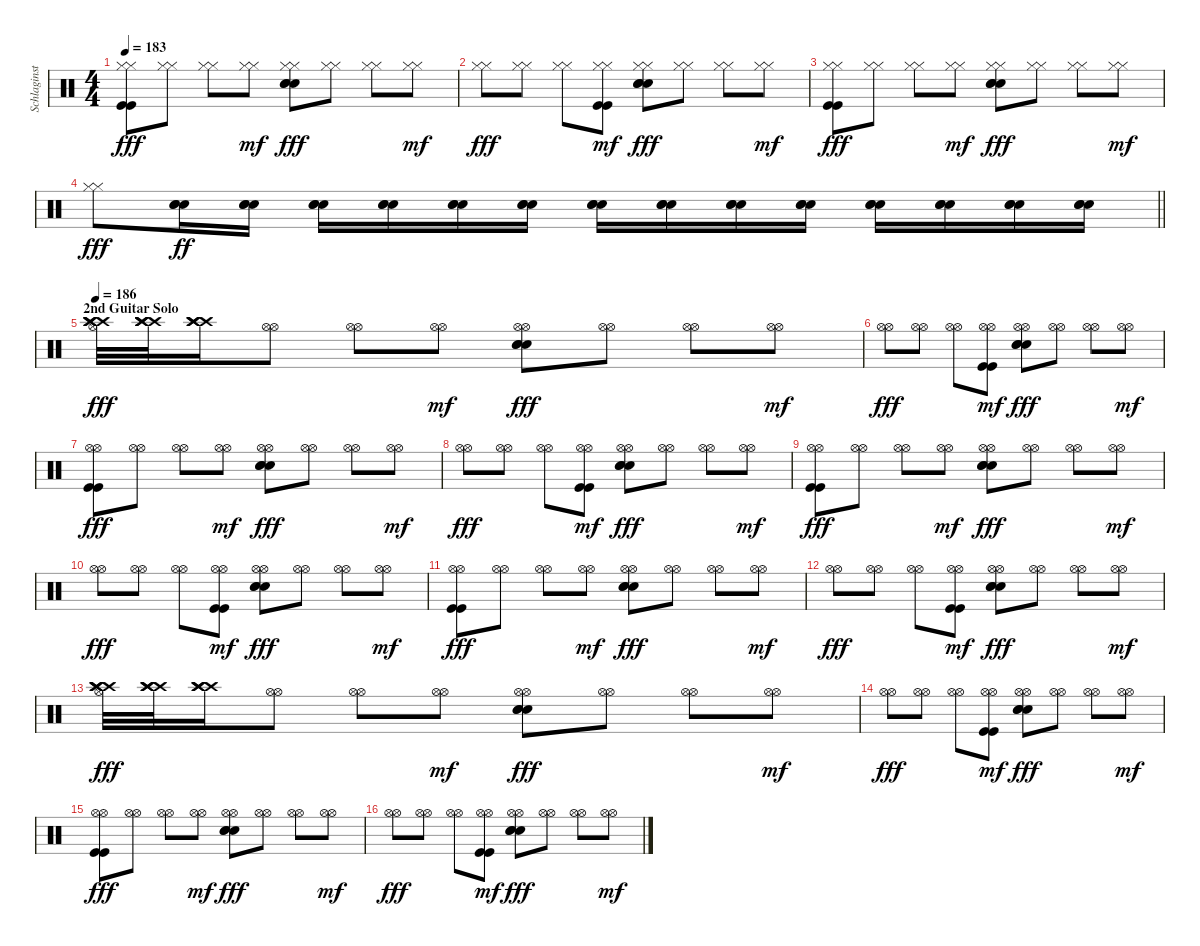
\track ("Schlaginstrumente - Auswahl" "Schlaginst") {instrument percussion}
\staff {score}
\articulation defaults
\ts (4 4)
\tempo 183
\clef neutral
\ks c
("Hi-Hat (closed)" "Hi-Hat (closed)" "Kick (hit)" "Kick (hit)").8{dy fff} ("Hi-Hat (closed)" "Hi-Hat (closed)").8 ("Hi-Hat (closed)" "Hi-Hat (closed)").8 ("Hi-Hat (closed)" "Hi-Hat (closed)").8{dy mf} ("Hi-Hat (closed)" "Hi-Hat (closed)" "Snare (hit) 2" "Snare (hit) 2" "Snare (hit) 2").8{dy fff} ("Hi-Hat (closed)" "Hi-Hat (closed)").8 ("Hi-Hat (closed)" "Hi-Hat (closed)").8 ("Hi-Hat (closed)" "Hi-Hat (closed)").8{dy mf} |
("Hi-Hat (closed)" "Hi-Hat (closed)").8{dy fff} ("Hi-Hat (closed)" "Hi-Hat (closed)").8 ("Hi-Hat (closed)" "Hi-Hat (closed)").8 ("Hi-Hat (closed)" "Hi-Hat (closed)" "Kick (hit)" "Kick (hit)").8{dy mf} ("Hi-Hat (closed)" "Hi-Hat (closed)" "Snare (hit) 2" "Snare (hit) 2" "Snare (hit) 2").8{dy fff} ("Hi-Hat (closed)" "Hi-Hat (closed)").8 ("Hi-Hat (closed)" "Hi-Hat (closed)").8 ("Hi-Hat (closed)" "Hi-Hat (closed)").8{dy mf} |
("Hi-Hat (closed)" "Hi-Hat (closed)" "Kick (hit)" "Kick (hit)").8{dy fff} ("Hi-Hat (closed)" "Hi-Hat (closed)").8 ("Hi-Hat (closed)" "Hi-Hat (closed)").8 ("Hi-Hat (closed)" "Hi-Hat (closed)").8{dy mf} ("Hi-Hat (closed)" "Hi-Hat (closed)" "Snare (hit) 2" "Snare (hit) 2" "Snare (hit) 2").8{dy fff} ("Hi-Hat (closed)" "Hi-Hat (closed)").8 ("Hi-Hat (closed)" "Hi-Hat (closed)").8 ("Hi-Hat (closed)" "Hi-Hat (closed)").8{dy mf} |
\barLineRight lightlight
("Hi-Hat (closed)" "Hi-Hat (closed)").8{dy fff} ("Snare (hit) 2" "Snare (hit) 2" "Snare (hit) 2").16{dy ff} ("Snare (hit) 2" "Snare (hit) 2" "Snare (hit) 2").16 ("Snare (hit) 2" "Snare (hit) 2" "Snare (hit) 2").16 ("Snare (hit) 2" "Snare (hit) 2" "Snare (hit) 2").16 ("Snare (hit) 2" "Snare (hit) 2" "Snare (hit) 2").16 ("Snare (hit) 2" "Snare (hit) 2" "Snare (hit) 2").16 ("Snare (hit) 2" "Snare (hit) 2" "Snare (hit) 2").16 ("Snare (hit) 2" "Snare (hit) 2" "Snare (hit) 2").16 ("Snare (hit) 2" "Snare (hit) 2" "Snare (hit) 2").16 ("Snare (hit) 2" "Snare (hit) 2" "Snare (hit) 2").16 ("Snare (hit) 2" "Snare (hit) 2" "Snare (hit) 2").16 ("Snare (hit) 2" "Snare (hit) 2" "Snare (hit) 2").16 ("Snare (hit) 2" "Snare (hit) 2" "Snare (hit) 2").16 ("Snare (hit) 2" "Snare (hit) 2" "Snare (hit) 2").16 |
\section ("" "2nd Guitar Solo")
\tempo 186
("Hi-Hat (open)" "Crash high (hit)" "Crash high (hit)" "Crash high (hit)" "Crash high (hit)").32{dy fff} ("Crash high (hit)" "Crash high (hit)" "Crash high (hit)" "Crash high (hit)").32 ("Crash high (hit)" "Crash high (hit)" "Crash high (hit)" "Crash high (hit)").16 ("Hi-Hat (open)" "Hi-Hat (open)").8 ("Hi-Hat (open)" "Hi-Hat (open)").8 ("Hi-Hat (open)" "Hi-Hat (open)").8{dy mf} ("Hi-Hat (open)" "Hi-Hat (open)" "Snare (hit) 2" "Snare (hit) 2" "Snare (hit) 2").8{dy fff} ("Hi-Hat (open)" "Hi-Hat (open)").8 ("Hi-Hat (open)" "Hi-Hat (open)").8 ("Hi-Hat (open)" "Hi-Hat (open)").8{dy mf} |
("Hi-Hat (open)" "Hi-Hat (open)").8{dy fff} ("Hi-Hat (open)" "Hi-Hat (open)").8 ("Hi-Hat (open)" "Hi-Hat (open)").8 ("Hi-Hat (open)" "Hi-Hat (open)" "Kick (hit)" "Kick (hit)").8{dy mf} ("Hi-Hat (open)" "Hi-Hat (open)" "Snare (hit) 2" "Snare (hit) 2" "Snare (hit) 2").8{dy fff} ("Hi-Hat (open)" "Hi-Hat (open)").8 ("Hi-Hat (open)" "Hi-Hat (open)").8 ("Hi-Hat (open)" "Hi-Hat (open)").8{dy mf} |
("Hi-Hat (open)" "Hi-Hat (open)" "Kick (hit)" "Kick (hit)").8{dy fff} ("Hi-Hat (open)" "Hi-Hat (open)").8 ("Hi-Hat (open)" "Hi-Hat (open)").8 ("Hi-Hat (open)" "Hi-Hat (open)").8{dy mf} ("Hi-Hat (open)" "Hi-Hat (open)" "Snare (hit) 2" "Snare (hit) 2" "Snare (hit) 2").8{dy fff} ("Hi-Hat (open)" "Hi-Hat (open)").8 ("Hi-Hat (open)" "Hi-Hat (open)").8 ("Hi-Hat (open)" "Hi-Hat (open)").8{dy mf} |
("Hi-Hat (open)" "Hi-Hat (open)").8{dy fff} ("Hi-Hat (open)" "Hi-Hat (open)").8 ("Hi-Hat (open)" "Hi-Hat (open)").8 ("Hi-Hat (open)" "Hi-Hat (open)" "Kick (hit)" "Kick (hit)").8{dy mf} ("Hi-Hat (open)" "Hi-Hat (open)" "Snare (hit) 2" "Snare (hit) 2" "Snare (hit) 2").8{dy fff} ("Hi-Hat (open)" "Hi-Hat (open)").8 ("Hi-Hat (open)" "Hi-Hat (open)").8 ("Hi-Hat (open)" "Hi-Hat (open)").8{dy mf} |
("Hi-Hat (open)" "Hi-Hat (open)" "Kick (hit)" "Kick (hit)").8{dy fff} ("Hi-Hat (open)" "Hi-Hat (open)").8 ("Hi-Hat (open)" "Hi-Hat (open)").8 ("Hi-Hat (open)" "Hi-Hat (open)").8{dy mf} ("Hi-Hat (open)" "Hi-Hat (open)" "Snare (hit) 2" "Snare (hit) 2" "Snare (hit) 2").8{dy fff} ("Hi-Hat (open)" "Hi-Hat (open)").8 ("Hi-Hat (open)" "Hi-Hat (open)").8 ("Hi-Hat (open)" "Hi-Hat (open)").8{dy mf} |
("Hi-Hat (open)" "Hi-Hat (open)").8{dy fff} ("Hi-Hat (open)" "Hi-Hat (open)").8 ("Hi-Hat (open)" "Hi-Hat (open)").8 ("Hi-Hat (open)" "Hi-Hat (open)" "Kick (hit)" "Kick (hit)").8{dy mf} ("Hi-Hat (open)" "Hi-Hat (open)" "Snare (hit) 2" "Snare (hit) 2" "Snare (hit) 2").8{dy fff} ("Hi-Hat (open)" "Hi-Hat (open)").8 ("Hi-Hat (open)" "Hi-Hat (open)").8 ("Hi-Hat (open)" "Hi-Hat (open)").8{dy mf} |
("Hi-Hat (open)" "Hi-Hat (open)" "Kick (hit)" "Kick (hit)").8{dy fff} ("Hi-Hat (open)" "Hi-Hat (open)").8 ("Hi-Hat (open)" "Hi-Hat (open)").8 ("Hi-Hat (open)" "Hi-Hat (open)").8{dy mf} ("Hi-Hat (open)" "Hi-Hat (open)" "Snare (hit) 2" "Snare (hit) 2" "Snare (hit) 2").8{dy fff} ("Hi-Hat (open)" "Hi-Hat (open)").8 ("Hi-Hat (open)" "Hi-Hat (open)").8 ("Hi-Hat (open)" "Hi-Hat (open)").8{dy mf} |
("Hi-Hat (open)" "Hi-Hat (open)").8{dy fff} ("Hi-Hat (open)" "Hi-Hat (open)").8 ("Hi-Hat (open)" "Hi-Hat (open)").8 ("Hi-Hat (open)" "Hi-Hat (open)" "Kick (hit)" "Kick (hit)").8{dy mf} ("Hi-Hat (open)" "Hi-Hat (open)" "Snare (hit) 2" "Snare (hit) 2" "Snare (hit) 2").8{dy fff} ("Hi-Hat (open)" "Hi-Hat (open)").8 ("Hi-Hat (open)" "Hi-Hat (open)").8 ("Hi-Hat (open)" "Hi-Hat (open)").8{dy mf} |
("Hi-Hat (open)" "Crash high (hit)" "Crash high (hit)" "Crash high (hit)" "Crash high (hit)").32{dy fff} ("Crash high (hit)" "Crash high (hit)" "Crash high (hit)" "Crash high (hit)").32 ("Crash high (hit)" "Crash high (hit)" "Crash high (hit)" "Crash high (hit)").16 ("Hi-Hat (open)" "Hi-Hat (open)").8 ("Hi-Hat (open)" "Hi-Hat (open)").8 ("Hi-Hat (open)" "Hi-Hat (open)").8{dy mf} ("Hi-Hat (open)" "Hi-Hat (open)" "Snare (hit) 2" "Snare (hit) 2" "Snare (hit) 2").8{dy fff} ("Hi-Hat (open)" "Hi-Hat (open)").8 ("Hi-Hat (open)" "Hi-Hat (open)").8 ("Hi-Hat (open)" "Hi-Hat (open)").8{dy mf} |
("Hi-Hat (open)" "Hi-Hat (open)").8{dy fff} ("Hi-Hat (open)" "Hi-Hat (open)").8 ("Hi-Hat (open)" "Hi-Hat (open)").8 ("Hi-Hat (open)" "Hi-Hat (open)" "Kick (hit)" "Kick (hit)").8{dy mf} ("Hi-Hat (open)" "Hi-Hat (open)" "Snare (hit) 2" "Snare (hit) 2" "Snare (hit) 2").8{dy fff} ("Hi-Hat (open)" "Hi-Hat (open)").8 ("Hi-Hat (open)" "Hi-Hat (open)").8 ("Hi-Hat (open)" "Hi-Hat (open)").8{dy mf} |
("Hi-Hat (open)" "Hi-Hat (open)" "Kick (hit)" "Kick (hit)").8{dy fff} ("Hi-Hat (open)" "Hi-Hat (open)").8 ("Hi-Hat (open)" "Hi-Hat (open)").8 ("Hi-Hat (open)" "Hi-Hat (open)").8{dy mf} ("Hi-Hat (open)" "Hi-Hat (open)" "Snare (hit) 2" "Snare (hit) 2" "Snare (hit) 2").8{dy fff} ("Hi-Hat (open)" "Hi-Hat (open)").8 ("Hi-Hat (open)" "Hi-Hat (open)").8 ("Hi-Hat (open)" "Hi-Hat (open)").8{dy mf} |
("Hi-Hat (open)" "Hi-Hat (open)").8{dy fff} ("Hi-Hat (open)" "Hi-Hat (open)").8 ("Hi-Hat (open)" "Hi-Hat (open)").8 ("Hi-Hat (open)" "Hi-Hat (open)" "Kick (hit)" "Kick (hit)").8{dy mf} ("Hi-Hat (open)" "Hi-Hat (open)" "Snare (hit) 2" "Snare (hit) 2" "Snare (hit) 2").8{dy fff} ("Hi-Hat (open)" "Hi-Hat (open)").8 ("Hi-Hat (open)" "Hi-Hat (open)").8 ("Hi-Hat (open)" "Hi-Hat (open)").8{dy mf}
